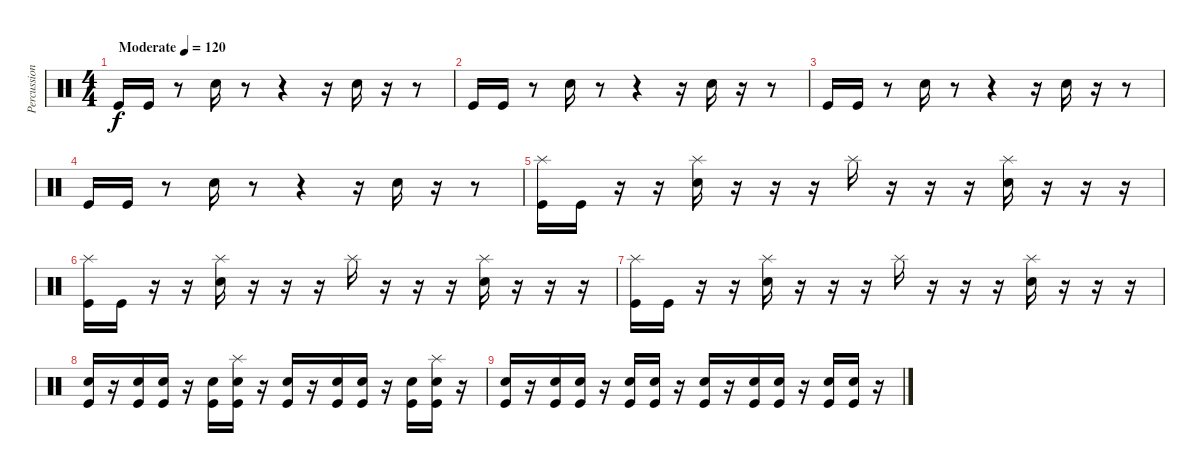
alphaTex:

\track ("Percussion" "Percussion") {instrument percussion}
\staff {score}
\articulation defaults
\ts (4 4)
\tempo (120 "Moderate")
\clef neutral
\ks c "Kick (hit)".16{dy f} "Kick (hit)".16
r.8 "Snare (hit) 2".16 r.8 r.4 r.16 "Snare (hit) 2".16 r.16 r.8 |
"Kick (hit)".16 "Kick (hit)".16 r.8 "Snare (hit) 2".16 r.8 r.4 r.16 "Snare (hit) 2".16 r.16 r.8 |
"Kick (hit)".16 "Kick (hit)".16 r.8 "Snare (hit) 2".16 r.8 r.4 r.16 "Snare (hit) 2".16 r.16 r.8 |
"Kick (hit)".16 "Kick (hit)".16 r.8 "Snare (hit) 2".16 r.8 r.4 r.16 "Snare (hit) 2".16 r.16 r.8 |
("Splash (hit)" "Kick (hit)").16 "Kick (hit)".16 r.16 r.16 ("Splash (hit)" "Snare (hit) 2").16 r.16 r.16 r.16 "Splash (hit)".16 r.16 r.16 r.16 ("Splash (hit)" "Snare (hit) 2").16 r.16 r.16 r.16 |
("Splash (hit)" "Kick (hit)").16 "Kick (hit)".16 r.16 r.16 ("Splash (hit)" "Snare (hit) 2").16 r.16 r.16 r.16 "Splash (hit)".16 r.16 r.16 r.16 ("Splash (hit)" "Snare (hit) 2").16 r.16 r.16 r.16 |
("Splash (hit)" "Kick (hit)").16 "Kick (hit)".16 r.16 r.16 ("Splash (hit)" "Snare (hit) 2").16 r.16 r.16 r.16 "Splash (hit)".16 r.16 r.16 r.16 ("Splash (hit)" "Snare (hit) 2").16 r.16 r.16 r.16 |
("Snare (hit) 2" "Kick (hit)").16 r.16 ("Snare (hit) 2" "Kick (hit)").16 ("Snare (hit) 2" "Kick (hit)").16 r.16 ("Snare (hit) 2" "Kick (hit)").16 ("Splash (hit)" "Snare (hit) 2" "Kick (hit)").16 r.16 ("Snare (hit) 2" "Kick (hit)").16 r.16 ("Snare (hit) 2" "Kick (hit)").16 ("Snare (hit) 2" "Kick (hit)").16 r.16 ("Snare (hit) 2" "Kick (hit)").16 ("Splash (hit)" "Snare (hit) 2" "Kick (hit)").16 r.16 |
("Snare (hit) 2" "Kick (hit)").16 r.16 ("Snare (hit) 2" "Kick (hit)").16 ("Snare (hit) 2" "Kick (hit)").16 r.16 ("Snare (hit) 2" "Kick (hit)").16 ("Snare (hit) 2" "Kick (hit)").16 r.16 ("Snare (hit) 2" "Kick (hit)").16 r.16 ("Snare (hit) 2" "Kick (hit)").16 ("Snare (hit) 2" "Kick (hit)").16 r.16 ("Snare (hit) 2" "Kick (hit)").16 ("Snare (hit) 2" "Kick (hit)").16 r.16
